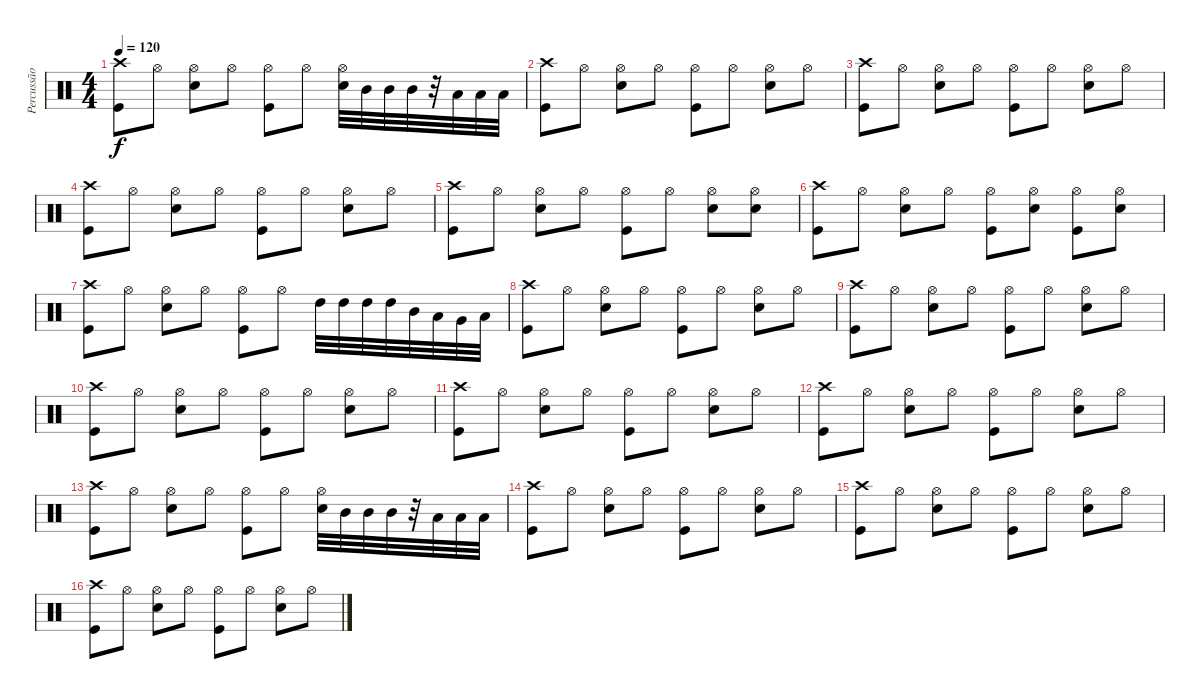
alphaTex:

\track ("Percussão" "Percussão") {instrument percussion}
\staff {score}
\articulation defaults
\ts (4 4)
\tempo 120
\clef neutral
\ks c
("Crash high (hit)" "Kick (hit)").8{dy f} "Hi-Hat (open)".8 ("Hi-Hat (open)" "Snare (hit) 2").8 "Hi-Hat (open)".8 ("Hi-Hat (open)" "Kick (hit)").8 "Hi-Hat (open)".8 ("Hi-Hat (open)" "Snare (hit) 2").32 "Mid Tom (hit)".32 "Mid Tom (hit)".32 "Mid Tom (hit)".32 r.32 "Low Floor Tom (hit)".32 "Low Floor Tom (hit)".32 "Low Floor Tom (hit)".32 |
("Crash high (hit)" "Kick (hit)").8 "Hi-Hat (open)".8 ("Hi-Hat (open)" "Snare (hit) 2").8 "Hi-Hat (open)".8 ("Hi-Hat (open)" "Kick (hit)").8 "Hi-Hat (open)".8 ("Hi-Hat (open)" "Snare (hit) 2").8 "Hi-Hat (open)".8 |
("Crash high (hit)" "Kick (hit)").8 "Hi-Hat (open)".8 ("Hi-Hat (open)" "Snare (hit) 2").8 "Hi-Hat (open)".8 ("Hi-Hat (open)" "Kick (hit)").8 "Hi-Hat (open)".8 ("Hi-Hat (open)" "Snare (hit) 2").8 "Hi-Hat (open)".8 |
("Crash high (hit)" "Kick (hit)").8 "Hi-Hat (open)".8 ("Hi-Hat (open)" "Snare (hit) 2").8 "Hi-Hat (open)".8 ("Hi-Hat (open)" "Kick (hit)").8 "Hi-Hat (open)".8 ("Hi-Hat (open)" "Snare (hit) 2").8 "Hi-Hat (open)".8 |
("Crash high (hit)" "Kick (hit)").8 "Hi-Hat (open)".8 ("Hi-Hat (open)" "Snare (hit) 2").8 "Hi-Hat (open)".8 ("Hi-Hat (open)" "Kick (hit)").8 "Hi-Hat (open)".8 ("Hi-Hat (open)" "Snare (hit) 2").8 ("Hi-Hat (open)" "Snare (hit) 2").8 |
("Crash high (hit)" "Kick (hit)").8 "Hi-Hat (open)".8 ("Hi-Hat (open)" "Snare (hit) 2").8 "Hi-Hat (open)".8 ("Hi-Hat (open)" "Kick (hit)").8 ("Hi-Hat (open)" "Snare (hit) 2").8 ("Hi-Hat (open)" "Kick (hit)").8 ("Hi-Hat (open)" "Snare (hit) 2").8 |
("Crash high (hit)" "Kick (hit)").8 "Hi-Hat (open)".8 ("Hi-Hat (open)" "Snare (hit) 2").8 "Hi-Hat (open)".8 ("Hi-Hat (open)" "Kick (hit)").8 "Hi-Hat (open)".8 "High Tom (hit)".32 "High Tom (hit)".32 "High Tom (hit)".32 "High Tom (hit)".32 "Mid Tom (hit)".32 "Low Tom (hit)".32 "Very Low Tom (hit)".32 "Low Floor Tom (hit)".32 |
("Crash high (hit)" "Kick (hit)").8 "Hi-Hat (open)".8 ("Hi-Hat (open)" "Snare (hit) 2").8 "Hi-Hat (open)".8 ("Hi-Hat (open)" "Kick (hit)").8 "Hi-Hat (open)".8 ("Hi-Hat (open)" "Snare (hit) 2").8 "Hi-Hat (open)".8 |
("Crash high (hit)" "Kick (hit)").8 "Hi-Hat (open)".8 ("Hi-Hat (open)" "Snare (hit) 2").8 "Hi-Hat (open)".8 ("Hi-Hat (open)" "Kick (hit)").8 "Hi-Hat (open)".8 ("Hi-Hat (open)" "Snare (hit) 2").8 "Hi-Hat (open)".8 |
("Crash high (hit)" "Kick (hit)").8 "Hi-Hat (open)".8 ("Hi-Hat (open)" "Snare (hit) 2").8 "Hi-Hat (open)".8 ("Hi-Hat (open)" "Kick (hit)").8 "Hi-Hat (open)".8 ("Hi-Hat (open)" "Snare (hit) 2").8 "Hi-Hat (open)".8 |
("Crash high (hit)" "Kick (hit)").8 "Hi-Hat (open)".8 ("Hi-Hat (open)" "Snare (hit) 2").8 "Hi-Hat (open)".8 ("Hi-Hat (open)" "Kick (hit)").8 "Hi-Hat (open)".8 ("Hi-Hat (open)" "Snare (hit) 2").8 "Hi-Hat (open)".8 |
("Crash high (hit)" "Kick (hit)").8 "Hi-Hat (open)".8 ("Hi-Hat (open)" "Snare (hit) 2").8 "Hi-Hat (open)".8 ("Hi-Hat (open)" "Kick (hit)").8 "Hi-Hat (open)".8 ("Hi-Hat (open)" "Snare (hit) 2").8 "Hi-Hat (open)".8 |
("Crash high (hit)" "Kick (hit)").8 "Hi-Hat (open)".8 ("Hi-Hat (open)" "Snare (hit) 2").8 "Hi-Hat (open)".8 ("Hi-Hat (open)" "Kick (hit)").8 "Hi-Hat (open)".8 ("Hi-Hat (open)" "Snare (hit) 2").32 "Mid Tom (hit)".32 "Mid Tom (hit)".32 "Mid Tom (hit)".32 r.32 "Low Floor Tom (hit)".32 "Low Floor Tom (hit)".32 "Low Floor Tom (hit)".32 |
("Crash high (hit)" "Kick (hit)").8 "Hi-Hat (open)".8 ("Hi-Hat (open)" "Snare (hit) 2").8 "Hi-Hat (open)".8 ("Hi-Hat (open)" "Kick (hit)").8 "Hi-Hat (open)".8 ("Hi-Hat (open)" "Snare (hit) 2").8 "Hi-Hat (open)".8 |
("Crash high (hit)" "Kick (hit)").8 "Hi-Hat (open)".8 ("Hi-Hat (open)" "Snare (hit) 2").8 "Hi-Hat (open)".8 ("Hi-Hat (open)" "Kick (hit)").8 "Hi-Hat (open)".8 ("Hi-Hat (open)" "Snare (hit) 2").8 "Hi-Hat (open)".8 |
("Crash high (hit)" "Kick (hit)").8 "Hi-Hat (open)".8 ("Hi-Hat (open)" "Snare (hit) 2").8 "Hi-Hat (open)".8 ("Hi-Hat (open)" "Kick (hit)").8 "Hi-Hat (open)".8 ("Hi-Hat (open)" "Snare (hit) 2").8 "Hi-Hat (open)".8
